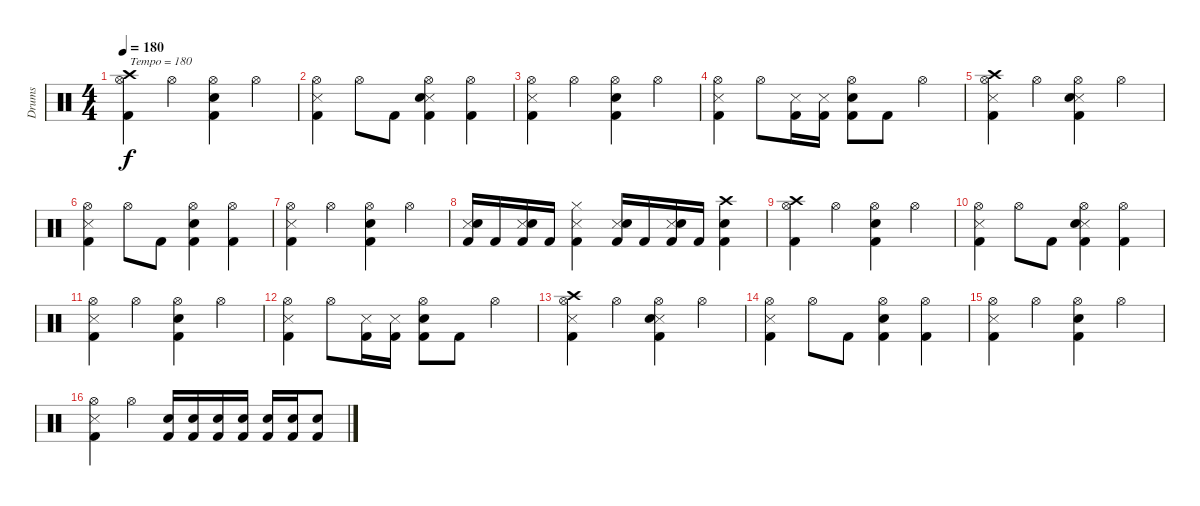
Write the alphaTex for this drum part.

\track ("Drums" "Drums") {instrument percussion}
\staff {score}
\articulation defaults
\ts (4 4)
\tempo 180
\clef neutral
\ks c
("Crash high (hit)" "Hi-Hat (open)" "Kick (hit) 2").4{txt "Tempo = 180" dy f} "Hi-Hat (open)".4 ("Hi-Hat (open)" "Electric Snare (hit)" "Kick (hit) 2").4 "Hi-Hat (open)".4 |
("Snare (side stick) 3" "Hi-Hat (open)" "Kick (hit) 2").4 "Hi-Hat (open)".8 "Kick (hit) 2".8 ("Snare (side stick) 3" "Hi-Hat (open)" "Electric Snare (hit)" "Kick (hit) 2").4 ("Hi-Hat (open)" "Kick (hit) 2").4 |
("Snare (side stick) 3" "Hi-Hat (open)" "Kick (hit) 2").4 "Hi-Hat (open)".4 ("Hi-Hat (open)" "Electric Snare (hit)" "Kick (hit) 2").4 "Hi-Hat (open)".4 |
("Snare (side stick) 3" "Hi-Hat (open)" "Kick (hit) 2").4 "Hi-Hat (open)".8 ("Snare (side stick) 3" "Kick (hit) 2").16 ("Snare (side stick) 3" "Kick (hit) 2").16 ("Hi-Hat (open)" "Electric Snare (hit)" "Kick (hit) 2").8 "Kick (hit) 2".8 "Hi-Hat (open)".4 |
("Crash high (hit)" "Snare (side stick) 3" "Hi-Hat (open)" "Kick (hit) 2").4 "Hi-Hat (open)".4 ("Snare (side stick) 3" "Hi-Hat (open)" "Electric Snare (hit)" "Kick (hit) 2").4 "Hi-Hat (open)".4 |
("Snare (side stick) 3" "Hi-Hat (open)" "Kick (hit) 2").4 "Hi-Hat (open)".8 "Kick (hit) 2".8 ("Hi-Hat (open)" "Electric Snare (hit)" "Kick (hit) 2").4 ("Hi-Hat (open)" "Kick (hit) 2").4 |
("Snare (side stick) 3" "Hi-Hat (open)" "Kick (hit) 2").4 "Hi-Hat (open)".4 ("Hi-Hat (open)" "Electric Snare (hit)" "Kick (hit) 2").4 "Hi-Hat (open)".4 |
("Snare (side stick) 3" "Electric Snare (hit)" "Kick (hit) 2").16 "Kick (hit) 2".16 ("Snare (side stick) 3" "Electric Snare (hit)" "Kick (hit) 2").16 "Kick (hit) 2".16 ("Snare (side stick) 3" "Hi-Hat (closed)" "Kick (hit) 2").4 ("Snare (side stick) 3" "Electric Snare (hit)" "Kick (hit) 2").16 "Kick (hit) 2".16 ("Snare (side stick) 3" "Electric Snare (hit)" "Kick (hit) 2").16 "Kick (hit) 2".16 ("Crash high (hit)" "Electric Snare (hit)" "Kick (hit) 2").4 |
("Crash high (hit)" "Hi-Hat (open)" "Kick (hit) 2").4 "Hi-Hat (open)".4 ("Hi-Hat (open)" "Electric Snare (hit)" "Kick (hit) 2").4 "Hi-Hat (open)".4 |
("Snare (side stick) 3" "Hi-Hat (open)" "Kick (hit) 2").4 "Hi-Hat (open)".8 "Kick (hit) 2".8 ("Snare (side stick) 3" "Hi-Hat (open)" "Electric Snare (hit)" "Kick (hit) 2").4 ("Hi-Hat (open)" "Kick (hit) 2").4 |
("Snare (side stick) 3" "Hi-Hat (open)" "Kick (hit) 2").4 "Hi-Hat (open)".4 ("Hi-Hat (open)" "Electric Snare (hit)" "Kick (hit) 2").4 "Hi-Hat (open)".4 |
("Snare (side stick) 3" "Hi-Hat (open)" "Kick (hit) 2").4 "Hi-Hat (open)".8 ("Snare (side stick) 3" "Kick (hit) 2").16 ("Snare (side stick) 3" "Kick (hit) 2").16 ("Hi-Hat (open)" "Electric Snare (hit)" "Kick (hit) 2").8 "Kick (hit) 2".8 "Hi-Hat (open)".4 |
("Crash high (hit)" "Snare (side stick) 3" "Hi-Hat (open)" "Kick (hit) 2").4 "Hi-Hat (open)".4 ("Snare (side stick) 3" "Hi-Hat (open)" "Electric Snare (hit)" "Kick (hit) 2").4 "Hi-Hat (open)".4 |
("Snare (side stick) 3" "Hi-Hat (open)" "Kick (hit) 2").4 "Hi-Hat (open)".8 "Kick (hit) 2".8 ("Hi-Hat (open)" "Electric Snare (hit)" "Kick (hit) 2").4 ("Hi-Hat (open)" "Kick (hit) 2").4 |
("Snare (side stick) 3" "Hi-Hat (open)" "Kick (hit) 2").4 "Hi-Hat (open)".4 ("Hi-Hat (open)" "Electric Snare (hit)" "Kick (hit) 2").4 "Hi-Hat (open)".4 |
("Snare (side stick) 3" "Hi-Hat (open)" "Kick (hit) 2").4 "Hi-Hat (open)".4 ("Electric Snare (hit)" "Kick (hit) 2").16 ("Electric Snare (hit)" "Kick (hit) 2").16 ("Electric Snare (hit)" "Kick (hit) 2").16 ("Electric Snare (hit)" "Kick (hit) 2").16 ("Electric Snare (hit)" "Kick (hit) 2").16 ("Electric Snare (hit)" "Kick (hit) 2").16 ("Electric Snare (hit)" "Kick (hit) 2").8
